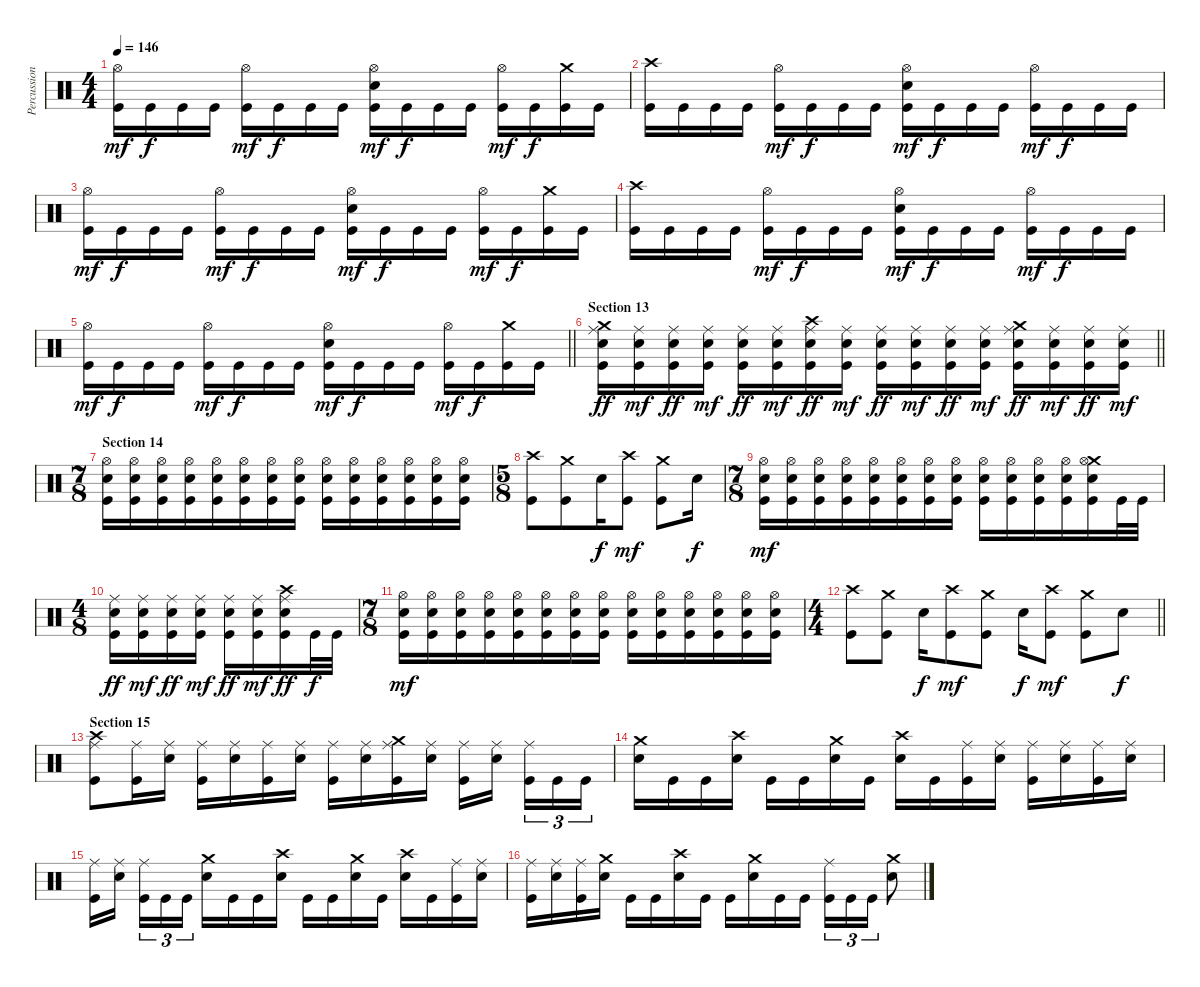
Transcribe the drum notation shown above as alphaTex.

\track ("Percussion" "Percussion") {instrument percussion}
\staff {score}
\articulation defaults
\ts (4 4)
\tempo 146
\clef neutral
\ks c
("Hi-Hat (open)" "Kick (hit)").16{dy mf} "Kick (hit)".16{dy f} "Kick (hit)".16 "Kick (hit)".16 ("Hi-Hat (open)" "Kick (hit)").16{dy mf} "Kick (hit)".16{dy f} "Kick (hit)".16 "Kick (hit)".16 ("Hi-Hat (open)" "Electric Snare (hit)" "Kick (hit)").16{dy mf} "Kick (hit)".16{dy f} "Kick (hit)".16 "Kick (hit)".16 ("Hi-Hat (open)" "Kick (hit)").16{dy mf} "Kick (hit)".16{dy f} ("Crash medium (hit)" "Kick (hit)").16 "Kick (hit)".16 |
("Crash high (hit)" "Kick (hit)").16 "Kick (hit)".16 "Kick (hit)".16 "Kick (hit)".16 ("Hi-Hat (open)" "Kick (hit)").16{dy mf} "Kick (hit)".16{dy f} "Kick (hit)".16 "Kick (hit)".16 ("Hi-Hat (open)" "Electric Snare (hit)" "Kick (hit)").16{dy mf} "Kick (hit)".16{dy f} "Kick (hit)".16 "Kick (hit)".16 ("Hi-Hat (open)" "Kick (hit)").16{dy mf} "Kick (hit)".16{dy f} "Kick (hit)".16 "Kick (hit)".16 |
("Hi-Hat (open)" "Kick (hit)").16{dy mf} "Kick (hit)".16{dy f} "Kick (hit)".16 "Kick (hit)".16 ("Hi-Hat (open)" "Kick (hit)").16{dy mf} "Kick (hit)".16{dy f} "Kick (hit)".16 "Kick (hit)".16 ("Hi-Hat (open)" "Electric Snare (hit)" "Kick (hit)").16{dy mf} "Kick (hit)".16{dy f} "Kick (hit)".16 "Kick (hit)".16 ("Hi-Hat (open)" "Kick (hit)").16{dy mf} "Kick (hit)".16{dy f} ("Crash medium (hit)" "Kick (hit)").16 "Kick (hit)".16 |
("Crash high (hit)" "Kick (hit)").16 "Kick (hit)".16 "Kick (hit)".16 "Kick (hit)".16 ("Hi-Hat (open)" "Kick (hit)").16{dy mf} "Kick (hit)".16{dy f} "Kick (hit)".16 "Kick (hit)".16 ("Hi-Hat (open)" "Electric Snare (hit)" "Kick (hit)").16{dy mf} "Kick (hit)".16{dy f} "Kick (hit)".16 "Kick (hit)".16 ("Hi-Hat (open)" "Kick (hit)").16{dy mf} "Kick (hit)".16{dy f} "Kick (hit)".16 "Kick (hit)".16 |
\barLineRight lightlight
("Hi-Hat (open)" "Kick (hit)").16{dy mf} "Kick (hit)".16{dy f} "Kick (hit)".16 "Kick (hit)".16 ("Hi-Hat (open)" "Kick (hit)").16{dy mf} "Kick (hit)".16{dy f} "Kick (hit)".16 "Kick (hit)".16 ("Hi-Hat (open)" "Electric Snare (hit)" "Kick (hit)").16{dy mf} "Kick (hit)".16{dy f} "Kick (hit)".16 "Kick (hit)".16 ("Hi-Hat (open)" "Kick (hit)").16{dy mf} "Kick (hit)".16{dy f} ("Crash medium (hit)" "Kick (hit)").16 "Kick (hit)".16 |
\section ("" "Section 13")
\barLineRight lightlight
("Crash medium (hit)" "Ride (middle)" "Electric Snare (hit)" "Kick (hit)").16{dy ff} ("Ride (middle)" "Electric Snare (hit)" "Kick (hit)").16{dy mf} ("Ride (middle)" "Electric Snare (hit)" "Kick (hit)").16{dy ff} ("Ride (middle)" "Electric Snare (hit)" "Kick (hit)").16{dy mf} ("Ride (middle)" "Electric Snare (hit)" "Kick (hit)").16{dy ff} ("Ride (middle)" "Electric Snare (hit)" "Kick (hit)").16{dy mf} ("Crash high (hit)" "Ride (middle)" "Electric Snare (hit)" "Kick (hit)").16{dy ff} ("Ride (middle)" "Electric Snare (hit)" "Kick (hit)").16{dy mf} ("Ride (middle)" "Electric Snare (hit)" "Kick (hit)").16{dy ff} ("Ride (middle)" "Electric Snare (hit)" "Kick (hit)").16{dy mf} ("Ride (middle)" "Electric Snare (hit)" "Kick (hit)").16{dy ff} ("Ride (middle)" "Electric Snare (hit)" "Kick (hit)").16{dy mf} ("Crash medium (hit)" "Ride (middle)" "Electric Snare (hit)" "Kick (hit)").16{dy ff} ("Ride (middle)" "Electric Snare (hit)" "Kick (hit)").16{dy mf} ("Ride (middle)" "Electric Snare (hit)" "Kick (hit)").16{dy ff} ("Ride (middle)" "Electric Snare (hit)" "Kick (hit)").16{dy mf} |
\ts (7 8)
\section ("" "Section 14")
("Hi-Hat (open)" "Electric Snare (hit)" "Kick (hit)").16 ("Hi-Hat (open)" "Electric Snare (hit)" "Kick (hit)").16 ("Hi-Hat (open)" "Electric Snare (hit)" "Kick (hit)").16 ("Hi-Hat (open)" "Electric Snare (hit)" "Kick (hit)").16 ("Hi-Hat (open)" "Electric Snare (hit)" "Kick (hit)").16 ("Hi-Hat (open)" "Electric Snare (hit)" "Kick (hit)").16 ("Hi-Hat (open)" "Electric Snare (hit)" "Kick (hit)").16 ("Hi-Hat (open)" "Electric Snare (hit)" "Kick (hit)").16 ("Hi-Hat (open)" "Electric Snare (hit)" "Kick (hit)").16 ("Hi-Hat (open)" "Electric Snare (hit)" "Kick (hit)").16 ("Hi-Hat (open)" "Electric Snare (hit)" "Kick (hit)").16 ("Hi-Hat (open)" "Electric Snare (hit)" "Kick (hit)").16 ("Hi-Hat (open)" "Electric Snare (hit)" "Kick (hit)").16 ("Hi-Hat (open)" "Electric Snare (hit)" "Kick (hit)").16 |
\ts (5 8)
("Crash high (hit)" "Kick (hit)").8 ("Crash medium (hit)" "Kick (hit)").8 "Electric Snare (hit)".16{dy f} ("Crash high (hit)" "Kick (hit)").8{dy mf} ("Crash medium (hit)" "Kick (hit)").8 "Electric Snare (hit)".16{dy f} |
\ts (7 8)
("Hi-Hat (open)" "Electric Snare (hit)" "Kick (hit)").16{dy mf} ("Hi-Hat (open)" "Electric Snare (hit)" "Kick (hit)").16 ("Hi-Hat (open)" "Electric Snare (hit)" "Kick (hit)").16 ("Hi-Hat (open)" "Electric Snare (hit)" "Kick (hit)").16 ("Hi-Hat (open)" "Electric Snare (hit)" "Kick (hit)").16 ("Hi-Hat (open)" "Electric Snare (hit)" "Kick (hit)").16 ("Hi-Hat (open)" "Electric Snare (hit)" "Kick (hit)").16 ("Hi-Hat (open)" "Electric Snare (hit)" "Kick (hit)").16 ("Hi-Hat (open)" "Electric Snare (hit)" "Kick (hit)").16 ("Hi-Hat (open)" "Electric Snare (hit)" "Kick (hit)").16 ("Hi-Hat (open)" "Electric Snare (hit)" "Kick (hit)").16 ("Hi-Hat (open)" "Electric Snare (hit)" "Kick (hit)").16 ("Crash medium (hit)" "Hi-Hat (open)" "Electric Snare (hit)" "Kick (hit)").16 "Kick (hit)".32 "Kick (hit)".32 |
\ts (4 8)
("Ride (middle)" "Electric Snare (hit)" "Kick (hit)").16{dy ff} ("Ride (middle)" "Electric Snare (hit)" "Kick (hit)").16{dy mf} ("Ride (middle)" "Electric Snare (hit)" "Kick (hit)").16{dy ff} ("Ride (middle)" "Electric Snare (hit)" "Kick (hit)").16{dy mf} ("Ride (middle)" "Electric Snare (hit)" "Kick (hit)").16{dy ff} ("Ride (middle)" "Electric Snare (hit)" "Kick (hit)").16{dy mf} ("Crash high (hit)" "Ride (middle)" "Electric Snare (hit)" "Kick (hit)").16{dy ff} "Kick (hit)".32{dy f} "Kick (hit)".32 |
\ts (7 8)
("Hi-Hat (open)" "Electric Snare (hit)" "Kick (hit)").16{dy mf} ("Hi-Hat (open)" "Electric Snare (hit)" "Kick (hit)").16 ("Hi-Hat (open)" "Electric Snare (hit)" "Kick (hit)").16 ("Hi-Hat (open)" "Electric Snare (hit)" "Kick (hit)").16 ("Hi-Hat (open)" "Electric Snare (hit)" "Kick (hit)").16 ("Hi-Hat (open)" "Electric Snare (hit)" "Kick (hit)").16 ("Hi-Hat (open)" "Electric Snare (hit)" "Kick (hit)").16 ("Hi-Hat (open)" "Electric Snare (hit)" "Kick (hit)").16 ("Hi-Hat (open)" "Electric Snare (hit)" "Kick (hit)").16 ("Hi-Hat (open)" "Electric Snare (hit)" "Kick (hit)").16 ("Hi-Hat (open)" "Electric Snare (hit)" "Kick (hit)").16 ("Hi-Hat (open)" "Electric Snare (hit)" "Kick (hit)").16 ("Hi-Hat (open)" "Electric Snare (hit)" "Kick (hit)").16 ("Hi-Hat (open)" "Electric Snare (hit)" "Kick (hit)").16 |
\ts (4 4)
\barLineRight lightlight
("Crash high (hit)" "Kick (hit)").8 ("Crash medium (hit)" "Kick (hit)").8 "Electric Snare (hit)".16{dy f} ("Crash high (hit)" "Kick (hit)").8{dy mf} ("Crash medium (hit)" "Kick (hit)").8 "Electric Snare (hit)".16{dy f} ("Crash high (hit)" "Kick (hit)").8{dy mf} ("Crash medium (hit)" "Kick (hit)").8 "Electric Snare (hit)".8{dy f} |
\section ("" "Section 15")
("Crash high (hit)" "Ride (middle)" "Kick (hit)").8 ("Ride (middle)" "Kick (hit)").16 ("Ride (middle)" "Electric Snare (hit)").16 ("Ride (middle)" "Kick (hit)").16 ("Ride (middle)" "Electric Snare (hit)").16 ("Ride (middle)" "Kick (hit)").16 ("Ride (middle)" "Electric Snare (hit)").16 ("Ride (middle)" "Kick (hit)").16 ("Ride (middle)" "Electric Snare (hit)").16 ("Crash medium (hit)" "Ride (middle)" "Kick (hit)").16 ("Ride (middle)" "Electric Snare (hit)").16 ("Ride (middle)" "Kick (hit)").16 ("Ride (middle)" "Electric Snare (hit)").16{beam splitsecondary} ("Ride (middle)" "Kick (hit)").16{tu (3 2)} "Kick (hit)".16{tu (3 2)} "Kick (hit)".16{tu (3 2)} |
("Crash medium (hit)" "Electric Snare (hit)").16 "Kick (hit)".16 "Kick (hit)".16 ("Crash high (hit)" "Electric Snare (hit)").16 "Kick (hit)".16 "Kick (hit)".16 ("Crash medium (hit)" "Electric Snare (hit)").16 "Kick (hit)".16 ("Crash high (hit)" "Electric Snare (hit)").16 "Kick (hit)".16 ("Ride (middle)" "Kick (hit)").16 ("Ride (middle)" "Electric Snare (hit)").16 ("Ride (middle)" "Kick (hit)").16 ("Ride (middle)" "Electric Snare (hit)").16 ("Ride (middle)" "Kick (hit)").16 ("Ride (middle)" "Electric Snare (hit)").16 |
("Ride (middle)" "Kick (hit)").16 ("Ride (middle)" "Electric Snare (hit)").16{beam splitsecondary} ("Ride (middle)" "Kick (hit)").16{tu (3 2)} "Kick (hit)".16{tu (3 2)} "Kick (hit)".16{tu (3 2)} ("Crash medium (hit)" "Electric Snare (hit)").16 "Kick (hit)".16 "Kick (hit)".16 ("Crash high (hit)" "Electric Snare (hit)").16 "Kick (hit)".16 "Kick (hit)".16 ("Crash medium (hit)" "Electric Snare (hit)").16 "Kick (hit)".16 ("Crash high (hit)" "Electric Snare (hit)").16 "Kick (hit)".16 ("Ride (middle)" "Kick (hit)").16 ("Ride (middle)" "Electric Snare (hit)").16 |
("Ride (middle)" "Kick (hit)").16 ("Ride (middle)" "Electric Snare (hit)").16 ("Ride (middle)" "Kick (hit)").16 ("Crash medium (hit)" "Electric Snare (hit)").16 "Kick (hit)".16 "Kick (hit)".16 ("Crash high (hit)" "Electric Snare (hit)").16 "Kick (hit)".16 "Kick (hit)".16 ("Crash medium (hit)" "Electric Snare (hit)").16 "Kick (hit)".16 "Kick (hit)".16 ("Ride (middle)" "Kick (hit)").16{tu (3 2)} "Kick (hit)".16{tu (3 2)} "Kick (hit)".16{tu (3 2)} ("Crash medium (hit)" "Electric Snare (hit)").8
